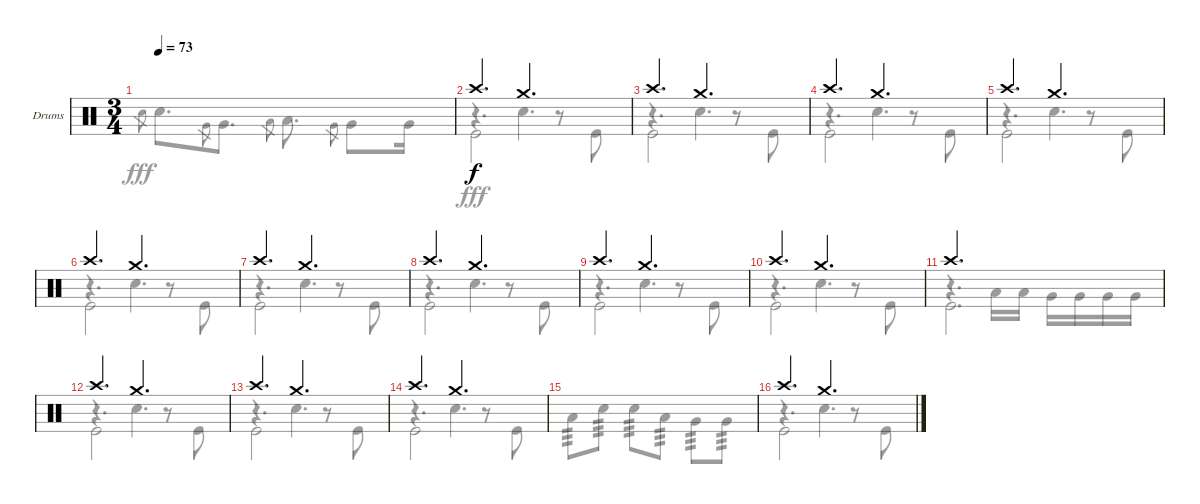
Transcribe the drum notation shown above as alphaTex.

\defaultSystemsLayout 4
\bracketExtendMode groupsimilarinstruments
\firstSystemTrackNameOrientation horizontal
\otherSystemsTrackNameOrientation horizontal
\track ("Drumkit" "Drums") {instrument percussion}
\staff {score}
\articulation defaults
\voice
\ts (3 4)
\tempo 73
\clef neutral
\ks c
|
"Crash high (hit)".4{d} "Crash medium (hit)".4{d} |
"Crash high (hit)".4{d} "Crash medium (hit)".4{d} |
"Crash high (hit)".4{d} "Crash medium (hit)".4{d} |
"Crash high (hit)".4{d} "Crash medium (hit)".4{d} |
"Crash high (hit)".4{d} "Crash medium (hit)".4{d} |
"Crash high (hit)".4{d} "Crash medium (hit)".4{d} |
"Crash high (hit)".4{d} "Crash medium (hit)".4{d} |
"Crash high (hit)".4{d} "Crash medium (hit)".4{d} |
"Crash high (hit)".4{d} "Crash medium (hit)".4{d} |
"Crash high (hit)".2{d} |
"Crash high (hit)".4{d} "Crash medium (hit)".4{d} |
"Crash high (hit)".4{d} "Crash medium (hit)".4{d} |
"Crash high (hit)".4{d} "Crash medium (hit)".4{d} |
|
"Crash high (hit)".4{d} "Crash medium (hit)".4{d}
\voice
\clef neutral
\ottava regular
\simile none
\ks c "Snare (hit) 2".8{gr dy fff} "Snare (hit) 2".8{d} "Very Low Tom (hit)".8{gr} "Very Low Tom (hit)".8{d} "Low Tom (hit)".8{gr} "Low Tom (hit)".8{d} "Very Low Tom (hit)".8{gr} "Very Low Tom (hit)".8 "Very Low Tom (hit)".16
|
r.4{d} "Snare (hit) 2".4{d} |
r.4{d} "Snare (hit) 2".4{d} |
r.4{d} "Snare (hit) 2".4{d} |
r.4{d} "Snare (hit) 2".4{d} |
r.4{d} "Snare (hit) 2".4{d} |
r.4{d} "Snare (hit) 2".4{d} |
r.4{d} "Snare (hit) 2".4{d} |
r.4{d} "Snare (hit) 2".4{d} |
r.4{d} "Snare (hit) 2".4{d} |
r.4{d} "Low Tom (hit)".16 "Low Tom (hit)".16 "Very Low Tom (hit)".16 "Very Low Tom (hit)".16 "Very Low Tom (hit)".16 "Very Low Tom (hit)".16 |
r.4{d} "Snare (hit) 2".4{d} |
r.4{d} "Snare (hit) 2".4{d} |
r.4{d} "Snare (hit) 2".4{d} |
"Low Tom (hit)".8{tp 3} "Snare (hit) 2".8{tp 3} "Snare (hit) 2".8{tp 3} "Low Tom (hit)".8{tp 3} "Very Low Tom (hit)".8{tp 3} "Very Low Tom (hit)".8{tp 3} |
r.4{d} "Snare (hit) 2".4{d}
\voice
\clef neutral
\ottava regular
\simile none
\ks c
|
"Kick (hit)".2 r.8 "Kick (hit)".8 |
"Kick (hit)".2 r.8 "Kick (hit)".8 |
"Kick (hit)".2 r.8 "Kick (hit)".8 |
"Kick (hit)".2 r.8 "Kick (hit)".8 |
"Kick (hit)".2 r.8 "Kick (hit)".8 |
"Kick (hit)".2 r.8 "Kick (hit)".8 |
"Kick (hit)".2 r.8 "Kick (hit)".8 |
"Kick (hit)".2 r.8 "Kick (hit)".8 |
"Kick (hit)".2 r.8 "Kick (hit)".8 |
"Kick (hit)".2{d} |
"Kick (hit)".2 r.8 "Kick (hit)".8 |
"Kick (hit)".2 r.8 "Kick (hit)".8 |
"Kick (hit)".2 r.8 "Kick (hit)".8 |
|
"Kick (hit)".2 r.8 "Kick (hit)".8
